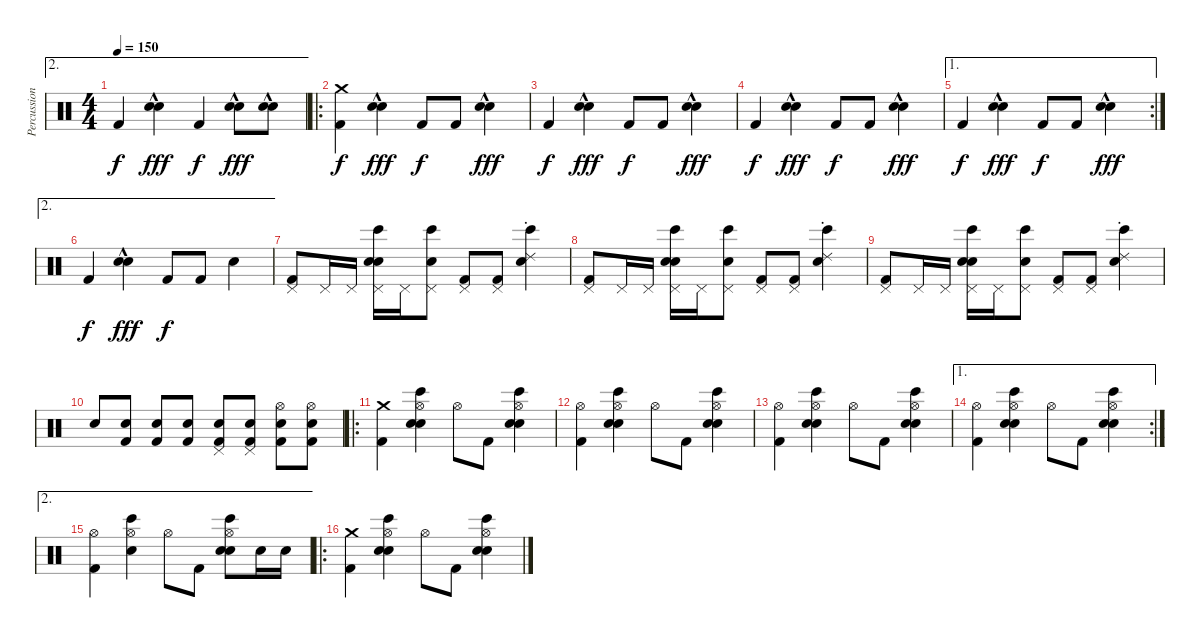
\track ("Percussion" "Percussion") {instrument percussion}
\staff {score}
\articulation defaults
\ae 2
\ts (4 4)
\tempo 150
\clef neutral
\ks c "Kick (hit) 2".4{dy f}
("Hand Clap (hit)"{hac} "Snare (hit) 2").4{dy fff} "Kick (hit) 2".4{dy f} ("Hand Clap (hit)"{hac} "Snare (hit) 2").8{dy fff} ("Hand Clap (hit)"{hac} "Snare (hit) 2").8 |
\ro
("Crash medium (hit)" "Kick (hit) 2").4{dy f} ("Hand Clap (hit)"{hac} "Snare (hit) 2").4{dy fff} "Kick (hit) 2".8{dy f} "Kick (hit) 2".8 ("Hand Clap (hit)"{hac} "Snare (hit) 2").4{dy fff} |
"Kick (hit) 2".4{dy f} ("Hand Clap (hit)"{hac} "Snare (hit) 2").4{dy fff} "Kick (hit) 2".8{dy f} "Kick (hit) 2".8 ("Hand Clap (hit)"{hac} "Snare (hit) 2").4{dy fff} |
"Kick (hit) 2".4{dy f} ("Hand Clap (hit)"{hac} "Snare (hit) 2").4{dy fff} "Kick (hit) 2".8{dy f} "Kick (hit) 2".8 ("Hand Clap (hit)"{hac} "Snare (hit) 2").4{dy fff} |
\ae 1
\rc 2 "Kick (hit) 2".4{dy f}
("Hand Clap (hit)"{hac} "Snare (hit) 2").4{dy fff} "Kick (hit) 2".8{dy f} "Kick (hit) 2".8 ("Hand Clap (hit)"{hac} "Snare (hit) 2").4{dy fff} |
\ae 2 "Kick (hit) 2".4{dy f}
("Hand Clap (hit)"{hac} "Snare (hit) 2").4{dy fff} "Kick (hit) 2".8{dy f} "Kick (hit) 2".8 "Snare (hit) 2".4 |
("Pedal Hi-Hat (hit)" "Kick (hit) 2").8 "Pedal Hi-Hat (hit)".16 "Pedal Hi-Hat (hit)".16 ("Bongo High (hit)" "Hand Clap (hit)" "Pedal Hi-Hat (hit)" "Snare (hit) 2").16 "Pedal Hi-Hat (hit)".16 ("Bongo High (hit)" "Pedal Hi-Hat (hit)" "Hand Clap (hit)").8 ("Pedal Hi-Hat (hit)" "Kick (hit) 2").8 ("Pedal Hi-Hat (hit)" "Kick (hit) 2").8 ("Ride (choke) 2" "Bongo High (hit)" "Snare (hit) 2").4 |
("Pedal Hi-Hat (hit)" "Kick (hit) 2").8 "Pedal Hi-Hat (hit)".16 "Pedal Hi-Hat (hit)".16 ("Bongo High (hit)" "Hand Clap (hit)" "Pedal Hi-Hat (hit)" "Snare (hit) 2").16 "Pedal Hi-Hat (hit)".16 ("Bongo High (hit)" "Pedal Hi-Hat (hit)" "Hand Clap (hit)").8 ("Pedal Hi-Hat (hit)" "Kick (hit) 2").8 ("Pedal Hi-Hat (hit)" "Kick (hit) 2").8 ("Ride (choke) 2" "Bongo High (hit)" "Snare (hit) 2").4 |
("Pedal Hi-Hat (hit)" "Kick (hit) 2").8 "Pedal Hi-Hat (hit)".16 "Pedal Hi-Hat (hit)".16 ("Bongo High (hit)" "Hand Clap (hit)" "Pedal Hi-Hat (hit)" "Snare (hit) 2").16 "Pedal Hi-Hat (hit)".16 ("Bongo High (hit)" "Pedal Hi-Hat (hit)" "Hand Clap (hit)").8 ("Pedal Hi-Hat (hit)" "Kick (hit) 2").8 ("Pedal Hi-Hat (hit)" "Kick (hit) 2").8 ("Ride (choke) 2" "Bongo High (hit)" "Snare (hit) 2").4 |
"Snare (hit) 2".8{volume 7} ("Snare (hit) 2" "Kick (hit) 2").8{volume 14} ("Snare (hit) 2" "Kick (hit) 2").8 ("Snare (hit) 2" "Kick (hit) 2").8 ("Pedal Hi-Hat (hit)" "Snare (hit) 2" "Kick (hit) 2").8 ("Pedal Hi-Hat (hit)" "Snare (hit) 2" "Kick (hit) 2").8 ("Hi-Hat (open)" "Snare (hit) 2" "Kick (hit) 2").8 ("Hi-Hat (open)" "Snare (hit) 2" "Kick (hit) 2").8 |
\ro
("Crash medium (hit)" "Kick (hit) 2").4 ("Hi-Hat (open)" "Hand Clap (hit)" "Bongo High (hit)" "Snare (hit) 2").4 "Hi-Hat (open)".8 "Kick (hit) 2".8 ("Hi-Hat (open)" "Hand Clap (hit)" "Bongo High (hit)" "Snare (hit) 2").4 |
("Hi-Hat (open)" "Kick (hit) 2").4 ("Hi-Hat (open)" "Hand Clap (hit)" "Bongo High (hit)" "Snare (hit) 2").4 "Hi-Hat (open)".8 "Kick (hit) 2".8 ("Hi-Hat (open)" "Hand Clap (hit)" "Bongo High (hit)" "Snare (hit) 2").4 |
("Hi-Hat (open)" "Kick (hit) 2").4 ("Hi-Hat (open)" "Hand Clap (hit)" "Bongo High (hit)" "Snare (hit) 2").4 "Hi-Hat (open)".8 "Kick (hit) 2".8 ("Hi-Hat (open)" "Hand Clap (hit)" "Bongo High (hit)" "Snare (hit) 2").4 |
\ae 1
\rc 2
("Hi-Hat (open)" "Kick (hit) 2").4 ("Hi-Hat (open)" "Hand Clap (hit)" "Bongo High (hit)" "Snare (hit) 2").4 "Hi-Hat (open)".8 "Kick (hit) 2".8 ("Hi-Hat (open)" "Hand Clap (hit)" "Bongo High (hit)" "Snare (hit) 2").4 |
\ae 2
("Hi-Hat (open)" "Kick (hit) 2").4 ("Hi-Hat (open)" "Bongo High (hit)" "Snare (hit) 2").4 "Hi-Hat (open)".8 "Kick (hit) 2".8 ("Hi-Hat (open)" "Hand Clap (hit)" "Bongo High (hit)" "Snare (hit) 2").8 "Snare (hit) 2".16 "Snare (hit) 2".16 |
\ro
("Crash medium (hit)" "Kick (hit) 2").4 ("Hi-Hat (open)" "Hand Clap (hit)" "Bongo High (hit)" "Snare (hit) 2").4 "Hi-Hat (open)".8 "Kick (hit) 2".8 ("Hi-Hat (open)" "Hand Clap (hit)" "Bongo High (hit)" "Snare (hit) 2").4
